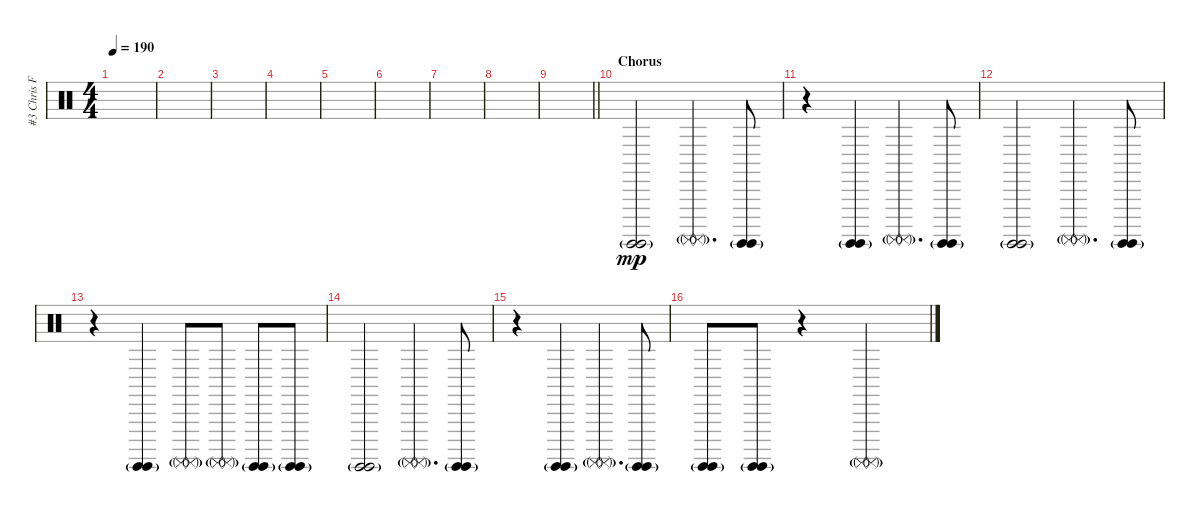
\track ("#3 Chris Fehn" "#3 Chris F") {instrument percussion}
\staff {score}
\articulation defaults
\ts (4 4)
\tempo 190
\clef neutral
\ks c
|
|
|
|
|
|
|
|
\barLineRight lightlight
|
\section ("" "Chorus")
("Surdo (hit)"{g} "Surdo (hit)"{g}).2{dy mp} ("Surdo (mute)"{g} "Surdo (mute)"{g}).4{d} ("Surdo (hit)"{g} "Surdo (hit)"{g}).8 |
r.4 ("Surdo (hit)"{g} "Surdo (hit)"{g}).4 ("Surdo (mute)"{g} "Surdo (mute)"{g}).4{d} ("Surdo (hit)"{g} "Surdo (hit)"{g}).8 |
("Surdo (hit)"{g} "Surdo (hit)"{g}).2 ("Surdo (mute)"{g} "Surdo (mute)"{g}).4{d} ("Surdo (hit)"{g} "Surdo (hit)"{g}).8 |
r.4 ("Surdo (hit)"{g} "Surdo (hit)"{g}).4 ("Surdo (mute)"{g} "Surdo (mute)"{g}).8 ("Surdo (mute)"{g} "Surdo (mute)"{g}).8 ("Surdo (hit)"{g} "Surdo (hit)"{g}).8 ("Surdo (hit)"{g} "Surdo (hit)"{g}).8 |
("Surdo (hit)"{g} "Surdo (hit)"{g}).2 ("Surdo (mute)"{g} "Surdo (mute)"{g}).4{d} ("Surdo (hit)"{g} "Surdo (hit)"{g}).8 |
r.4 ("Surdo (hit)"{g} "Surdo (hit)"{g}).4 ("Surdo (mute)"{g} "Surdo (mute)"{g}).4{d} ("Surdo (hit)"{g} "Surdo (hit)"{g}).8 |
("Surdo (hit)"{g} "Surdo (hit)"{g}).8 ("Surdo (hit)"{g} "Surdo (hit)"{g}).8 r.4 ("Surdo (mute)"{g} "Surdo (mute)"{g}).2
